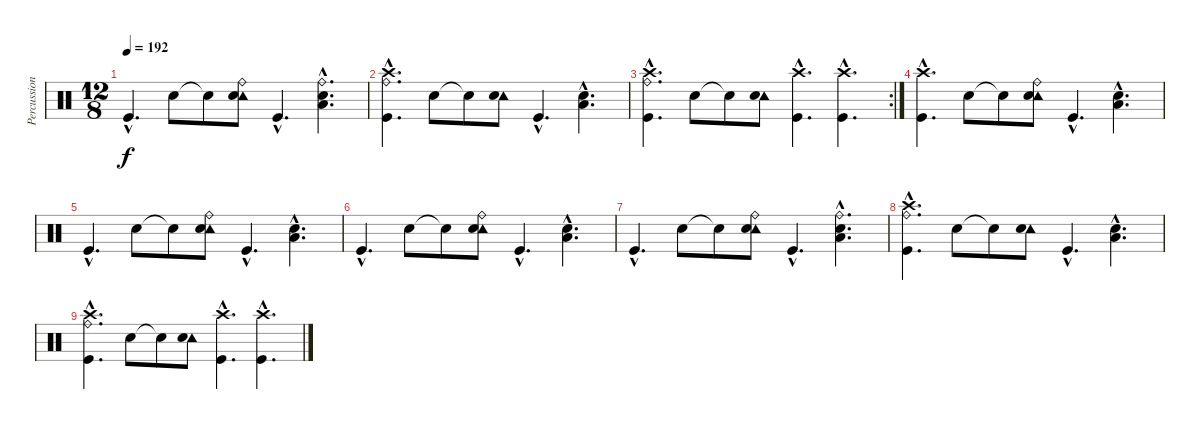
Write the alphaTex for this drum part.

\track ("Percussion" "Percussion") {instrument percussion}
\staff {score}
\articulation defaults
\ts (12 8)
\tempo 192
\clef neutral
\ks c "Kick (hit)"{hac}.4{d dy f} "Snare (hit) 2".8 "Snare (hit)"{t}.8
("Tambourine (hit)" "Ride (bell)" "Snare (hit) 2").8 "Kick (hit)"{hac}.4{d} ("Ride (bell)"{hac} "Snare (hit) 2"{hac} "Low Floor Tom (hit)"{hac}).4{d} |
("Crash high (hit)"{hac} "Ride (bell)"{hac} "Kick (hit)"{hac}).4{d} "Snare (hit) 2".8 "Snare (hit)"{t}.8 ("Tambourine (hit)" "Snare (hit) 2").8 "Kick (hit)"{hac}.4{d} ("Snare (hit) 2"{hac} "Low Floor Tom (hit)"{hac}).4{d} |
\rc 2
("Crash high (hit)"{hac} "Ride (bell)"{hac} "Kick (hit)"{hac}).4{d} "Snare (hit) 2".8 "Snare (hit)"{t}.8 ("Tambourine (hit)" "Snare (hit) 2").8 ("Crash high (hit)"{hac} "Kick (hit)"{hac}).4{d} ("Crash high (hit)"{hac} "Kick (hit)"{hac}).4{d} |
("Crash high (hit)"{hac} "Kick (hit)"{hac}).4{d} "Snare (hit) 2".8 "Snare (hit)"{t}.8 ("Tambourine (hit)" "Ride (bell)" "Snare (hit) 2").8 "Kick (hit)"{hac}.4{d} ("Snare (hit) 2"{hac} "Low Floor Tom (hit)"{hac}).4{d} |
"Kick (hit)"{hac}.4{d} "Snare (hit) 2".8 "Snare (hit)"{t}.8 ("Tambourine (hit)" "Ride (bell)" "Snare (hit) 2").8 "Kick (hit)"{hac}.4{d} ("Snare (hit) 2"{hac} "Low Floor Tom (hit)"{hac}).4{d} |
"Kick (hit)"{hac}.4{d} "Snare (hit) 2".8 "Snare (hit)"{t}.8 ("Tambourine (hit)" "Ride (bell)" "Snare (hit) 2").8 "Kick (hit)"{hac}.4{d} ("Snare (hit) 2"{hac} "Low Floor Tom (hit)"{hac}).4{d} |
"Kick (hit)"{hac}.4{d} "Snare (hit) 2".8 "Snare (hit)"{t}.8 ("Tambourine (hit)" "Ride (bell)" "Snare (hit) 2").8 "Kick (hit)"{hac}.4{d} ("Ride (bell)"{hac} "Snare (hit) 2"{hac} "Low Floor Tom (hit)"{hac}).4{d} |
("Crash high (hit)"{hac} "Ride (bell)"{hac} "Kick (hit)"{hac}).4{d} "Snare (hit) 2".8 "Snare (hit)"{t}.8 ("Tambourine (hit)" "Snare (hit) 2").8 "Kick (hit)"{hac}.4{d} ("Snare (hit) 2"{hac} "Low Floor Tom (hit)"{hac}).4{d} |
("Crash high (hit)"{hac} "Ride (bell)"{hac} "Kick (hit)"{hac}).4{d} "Snare (hit) 2".8 "Snare (hit)"{t}.8 ("Tambourine (hit)" "Snare (hit) 2").8 ("Crash high (hit)"{hac} "Kick (hit)"{hac}).4{d} ("Crash high (hit)"{hac} "Kick (hit)"{hac}).4{d}
